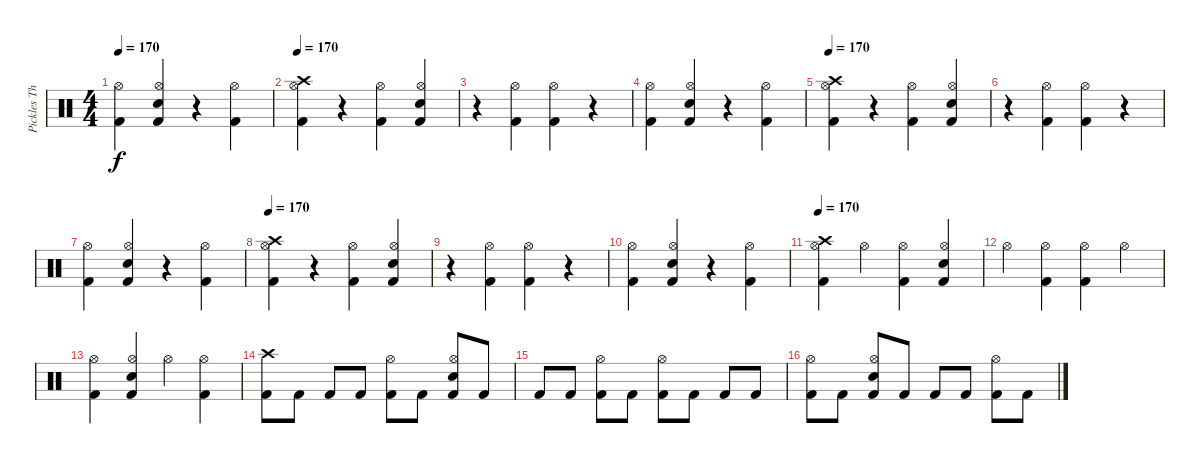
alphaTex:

\track ("Pickles The Drummer" "Pickles Th") {instrument percussion}
\staff {score}
\articulation defaults
\ts (4 4)
\tempo 170
\clef neutral
\ks c
("Kick (hit) 2" "Hi-Hat (open)").4{dy f} ("Kick (hit) 2" "Hi-Hat (open)" "Snare (hit) 2").4 r.4 ("Kick (hit) 2" "Hi-Hat (open)").4 |
\tempo 170
("Kick (hit) 2" "Hi-Hat (open)" "Crash high (hit)").4 r.4 ("Kick (hit) 2" "Hi-Hat (open)").4 ("Kick (hit) 2" "Hi-Hat (open)" "Snare (hit) 2").4 |
r.4 ("Kick (hit) 2" "Hi-Hat (open)").4 ("Kick (hit) 2" "Hi-Hat (open)").4 r.4 |
("Kick (hit) 2" "Hi-Hat (open)").4 ("Kick (hit) 2" "Hi-Hat (open)" "Snare (hit) 2").4 r.4 ("Kick (hit) 2" "Hi-Hat (open)").4 |
\tempo 170
("Kick (hit) 2" "Hi-Hat (open)" "Crash high (hit)").4 r.4 ("Kick (hit) 2" "Hi-Hat (open)").4 ("Kick (hit) 2" "Hi-Hat (open)" "Snare (hit) 2").4 |
r.4 ("Kick (hit) 2" "Hi-Hat (open)").4 ("Kick (hit) 2" "Hi-Hat (open)").4 r.4 |
("Kick (hit) 2" "Hi-Hat (open)").4 ("Kick (hit) 2" "Hi-Hat (open)" "Snare (hit) 2").4 r.4 ("Kick (hit) 2" "Hi-Hat (open)").4 |
\tempo 170
("Kick (hit) 2" "Hi-Hat (open)" "Crash high (hit)").4 r.4 ("Kick (hit) 2" "Hi-Hat (open)").4 ("Kick (hit) 2" "Hi-Hat (open)" "Snare (hit) 2").4 |
r.4 ("Kick (hit) 2" "Hi-Hat (open)").4 ("Kick (hit) 2" "Hi-Hat (open)").4 r.4 |
("Kick (hit) 2" "Hi-Hat (open)").4 ("Kick (hit) 2" "Hi-Hat (open)" "Snare (hit) 2").4 r.4 ("Kick (hit) 2" "Hi-Hat (open)").4 |
\tempo 170
("Kick (hit) 2" "Hi-Hat (open)" "Crash high (hit)").4 "Hi-Hat (open)".4 ("Kick (hit) 2" "Hi-Hat (open)").4 ("Kick (hit) 2" "Hi-Hat (open)" "Snare (hit) 2").4 |
"Hi-Hat (open)".4 ("Kick (hit) 2" "Hi-Hat (open)").4 ("Kick (hit) 2" "Hi-Hat (open)").4 "Hi-Hat (open)".4 |
("Kick (hit) 2" "Hi-Hat (open)").4 ("Kick (hit) 2" "Hi-Hat (open)" "Snare (hit) 2").4 "Hi-Hat (open)".4 ("Kick (hit) 2" "Hi-Hat (open)").4 |
("Kick (hit) 2" "Crash high (hit)").8 "Kick (hit) 2".8 "Kick (hit) 2".8 "Kick (hit) 2".8 ("Kick (hit) 2" "Hi-Hat (open)").8 "Kick (hit) 2".8 ("Kick (hit) 2" "Hi-Hat (open)" "Snare (hit) 2").8 "Kick (hit) 2".8 |
"Kick (hit) 2".8 "Kick (hit) 2".8 ("Kick (hit) 2" "Hi-Hat (open)").8 "Kick (hit) 2".8 ("Kick (hit) 2" "Hi-Hat (open)").8 "Kick (hit) 2".8 "Kick (hit) 2".8 "Kick (hit) 2".8 |
("Kick (hit) 2" "Hi-Hat (open)").8 "Kick (hit) 2".8 ("Kick (hit) 2" "Hi-Hat (open)" "Snare (hit) 2").8 "Kick (hit) 2".8 "Kick (hit) 2".8 "Kick (hit) 2".8 ("Kick (hit) 2" "Hi-Hat (open)").8 "Kick (hit) 2".8
